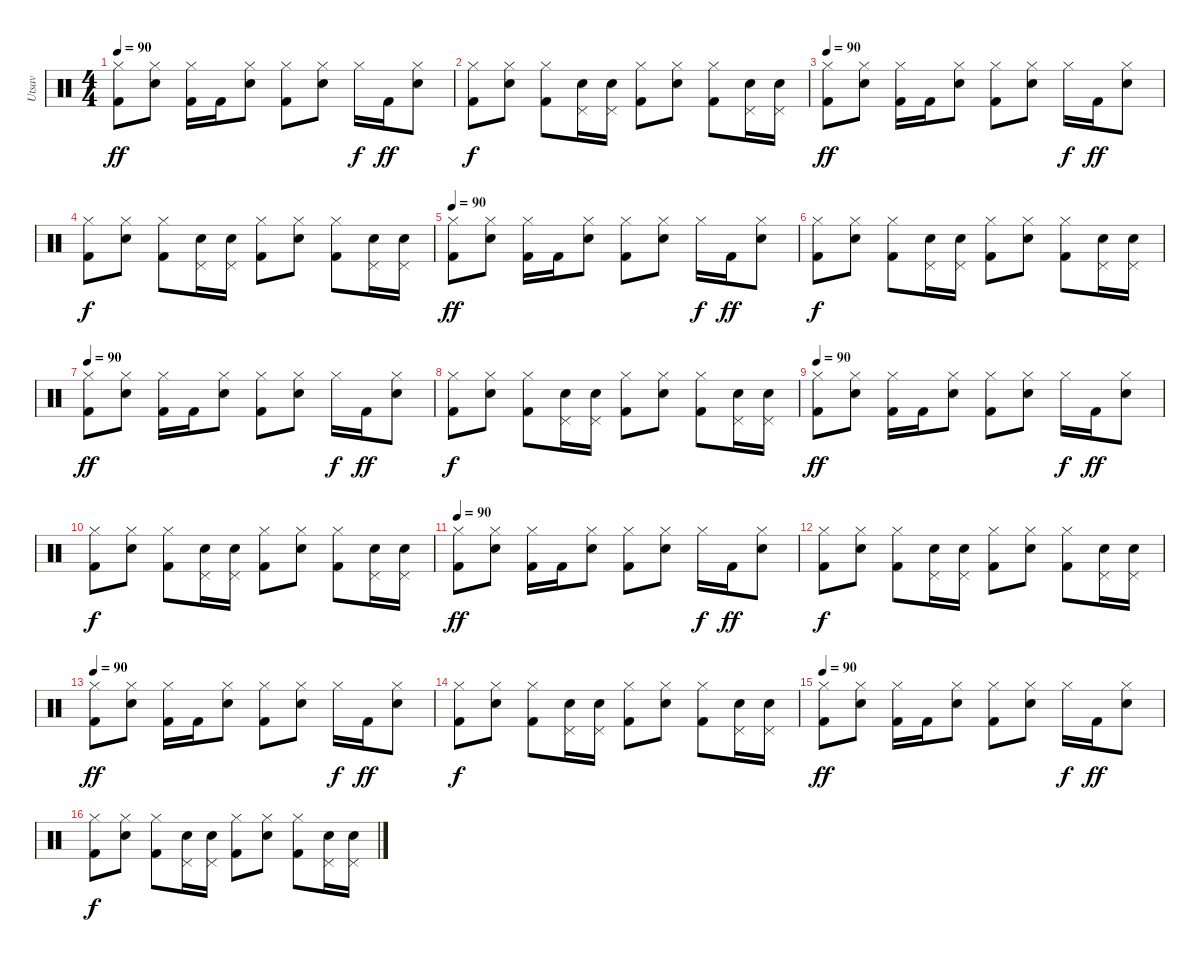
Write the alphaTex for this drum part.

\track ("Utsav" "Utsav") {instrument percussion}
\staff {score}
\articulation defaults
\ts (4 4)
\tempo 90
\clef neutral
\ks c
("Hi-Hat (closed)" "Kick (hit) 2").8{dy ff} ("Hi-Hat (closed)" "Snare (hit) 2").8 ("Hi-Hat (closed)" "Kick (hit) 2").16 "Kick (hit) 2".16 ("Hi-Hat (closed)" "Snare (hit) 2").8 ("Hi-Hat (closed)" "Kick (hit) 2").8 ("Hi-Hat (closed)" "Snare (hit) 2").8 "Hi-Hat (closed)".16{dy f} "Kick (hit) 2".16{dy ff} ("Hi-Hat (closed)" "Snare (hit) 2").8 |
("Hi-Hat (closed)" "Kick (hit) 2").8{dy f} ("Hi-Hat (closed)" "Snare (hit) 2").8 ("Hi-Hat (closed)" "Kick (hit) 2").8 ("Pedal Hi-Hat (hit)" "Snare (hit) 2").16 ("Pedal Hi-Hat (hit)" "Snare (hit) 2").16 ("Hi-Hat (closed)" "Kick (hit) 2").8 ("Hi-Hat (closed)" "Snare (hit) 2").8 ("Hi-Hat (closed)" "Kick (hit) 2").8 ("Pedal Hi-Hat (hit)" "Snare (hit) 2").16 ("Pedal Hi-Hat (hit)" "Snare (hit) 2").16 |
\tempo 90
("Hi-Hat (closed)" "Kick (hit) 2").8{dy ff} ("Hi-Hat (closed)" "Snare (hit) 2").8 ("Hi-Hat (closed)" "Kick (hit) 2").16 "Kick (hit) 2".16 ("Hi-Hat (closed)" "Snare (hit) 2").8 ("Hi-Hat (closed)" "Kick (hit) 2").8 ("Hi-Hat (closed)" "Snare (hit) 2").8 "Hi-Hat (closed)".16{dy f} "Kick (hit) 2".16{dy ff} ("Hi-Hat (closed)" "Snare (hit) 2").8 |
("Hi-Hat (closed)" "Kick (hit) 2").8{dy f} ("Hi-Hat (closed)" "Snare (hit) 2").8 ("Hi-Hat (closed)" "Kick (hit) 2").8 ("Pedal Hi-Hat (hit)" "Snare (hit) 2").16 ("Pedal Hi-Hat (hit)" "Snare (hit) 2").16 ("Hi-Hat (closed)" "Kick (hit) 2").8 ("Hi-Hat (closed)" "Snare (hit) 2").8 ("Hi-Hat (closed)" "Kick (hit) 2").8 ("Pedal Hi-Hat (hit)" "Snare (hit) 2").16 ("Pedal Hi-Hat (hit)" "Snare (hit) 2").16 |
\tempo 90
("Hi-Hat (closed)" "Kick (hit) 2").8{dy ff} ("Hi-Hat (closed)" "Snare (hit) 2").8 ("Hi-Hat (closed)" "Kick (hit) 2").16 "Kick (hit) 2".16 ("Hi-Hat (closed)" "Snare (hit) 2").8 ("Hi-Hat (closed)" "Kick (hit) 2").8 ("Hi-Hat (closed)" "Snare (hit) 2").8 "Hi-Hat (closed)".16{dy f} "Kick (hit) 2".16{dy ff} ("Hi-Hat (closed)" "Snare (hit) 2").8 |
("Hi-Hat (closed)" "Kick (hit) 2").8{dy f} ("Hi-Hat (closed)" "Snare (hit) 2").8 ("Hi-Hat (closed)" "Kick (hit) 2").8 ("Pedal Hi-Hat (hit)" "Snare (hit) 2").16 ("Pedal Hi-Hat (hit)" "Snare (hit) 2").16 ("Hi-Hat (closed)" "Kick (hit) 2").8 ("Hi-Hat (closed)" "Snare (hit) 2").8 ("Hi-Hat (closed)" "Kick (hit) 2").8 ("Pedal Hi-Hat (hit)" "Snare (hit) 2").16 ("Pedal Hi-Hat (hit)" "Snare (hit) 2").16 |
\tempo 90
("Hi-Hat (closed)" "Kick (hit) 2").8{dy ff} ("Hi-Hat (closed)" "Snare (hit) 2").8 ("Hi-Hat (closed)" "Kick (hit) 2").16 "Kick (hit) 2".16 ("Hi-Hat (closed)" "Snare (hit) 2").8 ("Hi-Hat (closed)" "Kick (hit) 2").8 ("Hi-Hat (closed)" "Snare (hit) 2").8 "Hi-Hat (closed)".16{dy f} "Kick (hit) 2".16{dy ff} ("Hi-Hat (closed)" "Snare (hit) 2").8 |
("Hi-Hat (closed)" "Kick (hit) 2").8{dy f} ("Hi-Hat (closed)" "Snare (hit) 2").8 ("Hi-Hat (closed)" "Kick (hit) 2").8 ("Pedal Hi-Hat (hit)" "Snare (hit) 2").16 ("Pedal Hi-Hat (hit)" "Snare (hit) 2").16 ("Hi-Hat (closed)" "Kick (hit) 2").8 ("Hi-Hat (closed)" "Snare (hit) 2").8 ("Hi-Hat (closed)" "Kick (hit) 2").8 ("Pedal Hi-Hat (hit)" "Snare (hit) 2").16 ("Pedal Hi-Hat (hit)" "Snare (hit) 2").16 |
\tempo 90
("Hi-Hat (closed)" "Kick (hit) 2").8{dy ff} ("Hi-Hat (closed)" "Snare (hit) 2").8 ("Hi-Hat (closed)" "Kick (hit) 2").16 "Kick (hit) 2".16 ("Hi-Hat (closed)" "Snare (hit) 2").8 ("Hi-Hat (closed)" "Kick (hit) 2").8 ("Hi-Hat (closed)" "Snare (hit) 2").8 "Hi-Hat (closed)".16{dy f} "Kick (hit) 2".16{dy ff} ("Hi-Hat (closed)" "Snare (hit) 2").8 |
("Hi-Hat (closed)" "Kick (hit) 2").8{dy f} ("Hi-Hat (closed)" "Snare (hit) 2").8 ("Hi-Hat (closed)" "Kick (hit) 2").8 ("Pedal Hi-Hat (hit)" "Snare (hit) 2").16 ("Pedal Hi-Hat (hit)" "Snare (hit) 2").16 ("Hi-Hat (closed)" "Kick (hit) 2").8 ("Hi-Hat (closed)" "Snare (hit) 2").8 ("Hi-Hat (closed)" "Kick (hit) 2").8 ("Pedal Hi-Hat (hit)" "Snare (hit) 2").16 ("Pedal Hi-Hat (hit)" "Snare (hit) 2").16 |
\tempo 90
("Hi-Hat (closed)" "Kick (hit) 2").8{dy ff} ("Hi-Hat (closed)" "Snare (hit) 2").8 ("Hi-Hat (closed)" "Kick (hit) 2").16 "Kick (hit) 2".16 ("Hi-Hat (closed)" "Snare (hit) 2").8 ("Hi-Hat (closed)" "Kick (hit) 2").8 ("Hi-Hat (closed)" "Snare (hit) 2").8 "Hi-Hat (closed)".16{dy f} "Kick (hit) 2".16{dy ff} ("Hi-Hat (closed)" "Snare (hit) 2").8 |
("Hi-Hat (closed)" "Kick (hit) 2").8{dy f} ("Hi-Hat (closed)" "Snare (hit) 2").8 ("Hi-Hat (closed)" "Kick (hit) 2").8 ("Pedal Hi-Hat (hit)" "Snare (hit) 2").16 ("Pedal Hi-Hat (hit)" "Snare (hit) 2").16 ("Hi-Hat (closed)" "Kick (hit) 2").8 ("Hi-Hat (closed)" "Snare (hit) 2").8 ("Hi-Hat (closed)" "Kick (hit) 2").8 ("Pedal Hi-Hat (hit)" "Snare (hit) 2").16 ("Pedal Hi-Hat (hit)" "Snare (hit) 2").16 |
\tempo 90
("Hi-Hat (closed)" "Kick (hit) 2").8{dy ff} ("Hi-Hat (closed)" "Snare (hit) 2").8 ("Hi-Hat (closed)" "Kick (hit) 2").16 "Kick (hit) 2".16 ("Hi-Hat (closed)" "Snare (hit) 2").8 ("Hi-Hat (closed)" "Kick (hit) 2").8 ("Hi-Hat (closed)" "Snare (hit) 2").8 "Hi-Hat (closed)".16{dy f} "Kick (hit) 2".16{dy ff} ("Hi-Hat (closed)" "Snare (hit) 2").8 |
("Hi-Hat (closed)" "Kick (hit) 2").8{dy f} ("Hi-Hat (closed)" "Snare (hit) 2").8 ("Hi-Hat (closed)" "Kick (hit) 2").8 ("Pedal Hi-Hat (hit)" "Snare (hit) 2").16 ("Pedal Hi-Hat (hit)" "Snare (hit) 2").16 ("Hi-Hat (closed)" "Kick (hit) 2").8 ("Hi-Hat (closed)" "Snare (hit) 2").8 ("Hi-Hat (closed)" "Kick (hit) 2").8 ("Pedal Hi-Hat (hit)" "Snare (hit) 2").16 ("Pedal Hi-Hat (hit)" "Snare (hit) 2").16 |
\tempo 90
("Hi-Hat (closed)" "Kick (hit) 2").8{dy ff} ("Hi-Hat (closed)" "Snare (hit) 2").8 ("Hi-Hat (closed)" "Kick (hit) 2").16 "Kick (hit) 2".16 ("Hi-Hat (closed)" "Snare (hit) 2").8 ("Hi-Hat (closed)" "Kick (hit) 2").8 ("Hi-Hat (closed)" "Snare (hit) 2").8 "Hi-Hat (closed)".16{dy f} "Kick (hit) 2".16{dy ff} ("Hi-Hat (closed)" "Snare (hit) 2").8 |
("Hi-Hat (closed)" "Kick (hit) 2").8{dy f} ("Hi-Hat (closed)" "Snare (hit) 2").8 ("Hi-Hat (closed)" "Kick (hit) 2").8 ("Pedal Hi-Hat (hit)" "Snare (hit) 2").16 ("Pedal Hi-Hat (hit)" "Snare (hit) 2").16 ("Hi-Hat (closed)" "Kick (hit) 2").8 ("Hi-Hat (closed)" "Snare (hit) 2").8 ("Hi-Hat (closed)" "Kick (hit) 2").8 ("Pedal Hi-Hat (hit)" "Snare (hit) 2").16 ("Pedal Hi-Hat (hit)" "Snare (hit) 2").16
